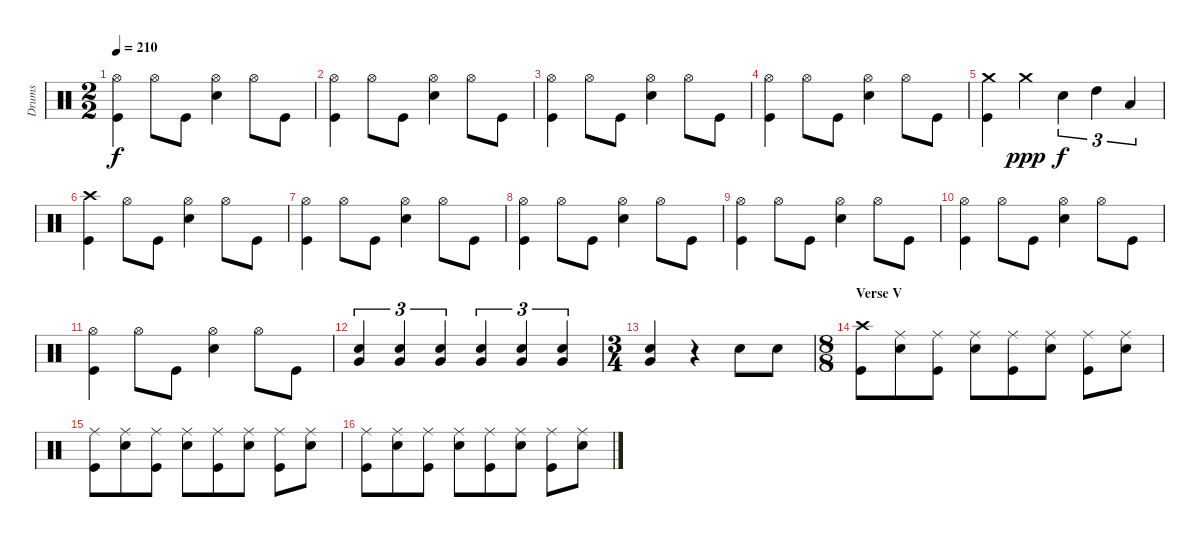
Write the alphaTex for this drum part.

\track ("Drums" "Drums") {instrument percussion}
\staff {score}
\articulation defaults
\ts (2 2)
\tempo 210
\clef neutral
\ks c
("Hi-Hat (open)" "Kick (hit)").4{dy f} "Hi-Hat (open)".8 "Kick (hit)".8 ("Hi-Hat (open)" "Electric Snare (hit)").4 "Hi-Hat (open)".8 "Kick (hit)".8 |
("Hi-Hat (open)" "Kick (hit)").4 "Hi-Hat (open)".8 "Kick (hit)".8 ("Hi-Hat (open)" "Electric Snare (hit)").4 "Hi-Hat (open)".8 "Kick (hit)".8 |
("Hi-Hat (open)" "Kick (hit)").4 "Hi-Hat (open)".8 "Kick (hit)".8 ("Hi-Hat (open)" "Electric Snare (hit)").4 "Hi-Hat (open)".8 "Kick (hit)".8 |
("Hi-Hat (open)" "Kick (hit)").4 "Hi-Hat (open)".8 "Kick (hit)".8 ("Hi-Hat (open)" "Electric Snare (hit)").4 "Hi-Hat (open)".8 "Kick (hit)".8 |
("Crash medium (hit)" "Kick (hit)").4 "Crash medium (hit)".4{dy ppp} "Electric Snare (hit)".4{tu (3 2) dy f} "High Tom (hit)".4{tu (3 2)} "Low Tom (hit)".4{tu (3 2)} |
("Crash high (hit)" "Kick (hit)").4 "Hi-Hat (open)".8 "Kick (hit)".8 ("Hi-Hat (open)" "Electric Snare (hit)").4 "Hi-Hat (open)".8 "Kick (hit)".8 |
("Hi-Hat (open)" "Kick (hit)").4 "Hi-Hat (open)".8 "Kick (hit)".8 ("Hi-Hat (open)" "Electric Snare (hit)").4 "Hi-Hat (open)".8 "Kick (hit)".8 |
("Hi-Hat (open)" "Kick (hit)").4 "Hi-Hat (open)".8 "Kick (hit)".8 ("Hi-Hat (open)" "Electric Snare (hit)").4 "Hi-Hat (open)".8 "Kick (hit)".8 |
("Hi-Hat (open)" "Kick (hit)").4 "Hi-Hat (open)".8 "Kick (hit)".8 ("Hi-Hat (open)" "Electric Snare (hit)").4 "Hi-Hat (open)".8 "Kick (hit)".8 |
("Hi-Hat (open)" "Kick (hit)").4 "Hi-Hat (open)".8 "Kick (hit)".8 ("Hi-Hat (open)" "Electric Snare (hit)").4 "Hi-Hat (open)".8 "Kick (hit)".8 |
("Hi-Hat (open)" "Kick (hit)").4 "Hi-Hat (open)".8 "Kick (hit)".8 ("Hi-Hat (open)" "Electric Snare (hit)").4 "Hi-Hat (open)".8 "Kick (hit)".8 |
("Very Low Tom (hit)" "Electric Snare (hit)").4{tu (3 2)} ("Very Low Tom (hit)" "Electric Snare (hit)").4{tu (3 2)} ("Very Low Tom (hit)" "Electric Snare (hit)").4{tu (3 2)} ("Very Low Tom (hit)" "Electric Snare (hit)").4{tu (3 2)} ("Very Low Tom (hit)" "Electric Snare (hit)").4{tu (3 2)} ("Very Low Tom (hit)" "Electric Snare (hit)").4{tu (3 2)} |
\ts (3 4)
("Very Low Tom (hit)" "Electric Snare (hit)").4 r.4 "Electric Snare (hit)".8 "Electric Snare (hit)".8 |
\ts (8 8)
\section ("" "Verse V")
("Crash high (hit)" "Kick (hit)").8 ("Ride (middle)" "Electric Snare (hit)").8 ("Ride (middle)" "Kick (hit)").8 ("Ride (middle)" "Electric Snare (hit)").8 ("Ride (middle)" "Kick (hit)").8 ("Ride (middle)" "Electric Snare (hit)").8 ("Ride (middle)" "Kick (hit)").8 ("Ride (middle)" "Electric Snare (hit)").8 |
("Ride (middle)" "Kick (hit)").8 ("Ride (middle)" "Electric Snare (hit)").8 ("Ride (middle)" "Kick (hit)").8 ("Ride (middle)" "Electric Snare (hit)").8 ("Ride (middle)" "Kick (hit)").8 ("Ride (middle)" "Electric Snare (hit)").8 ("Ride (middle)" "Kick (hit)").8 ("Ride (middle)" "Electric Snare (hit)").8 |
("Ride (middle)" "Kick (hit)").8 ("Ride (middle)" "Electric Snare (hit)").8 ("Ride (middle)" "Kick (hit)").8 ("Ride (middle)" "Electric Snare (hit)").8 ("Ride (middle)" "Kick (hit)").8 ("Ride (middle)" "Electric Snare (hit)").8 ("Ride (middle)" "Kick (hit)").8 ("Ride (middle)" "Electric Snare (hit)").8
